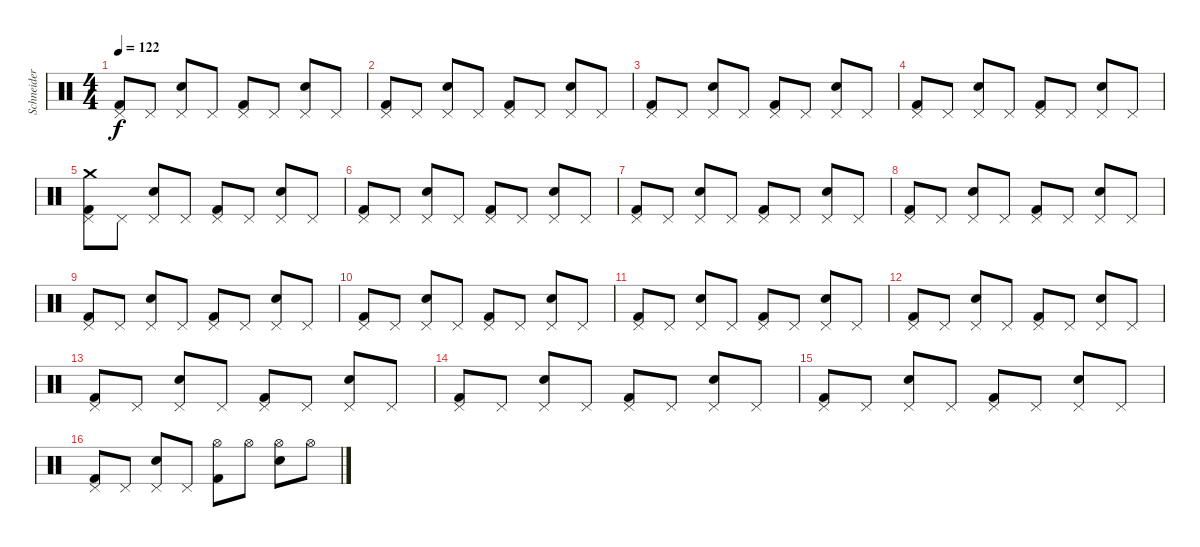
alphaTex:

\track ("Schneider" "Schneider") {instrument percussion}
\staff {score}
\articulation defaults
\ts (4 4)
\tempo 122
\clef neutral
\ks c
("Pedal Hi-Hat (hit)" "Kick (hit) 2").8{dy f} "Pedal Hi-Hat (hit)".8 ("Pedal Hi-Hat (hit)" "Snare (hit) 2").8 "Pedal Hi-Hat (hit)".8 ("Pedal Hi-Hat (hit)" "Kick (hit) 2").8 "Pedal Hi-Hat (hit)".8 ("Pedal Hi-Hat (hit)" "Snare (hit) 2").8 "Pedal Hi-Hat (hit)".8 |
("Pedal Hi-Hat (hit)" "Kick (hit) 2").8 "Pedal Hi-Hat (hit)".8 ("Pedal Hi-Hat (hit)" "Snare (hit) 2").8 "Pedal Hi-Hat (hit)".8 ("Pedal Hi-Hat (hit)" "Kick (hit) 2").8 "Pedal Hi-Hat (hit)".8 ("Pedal Hi-Hat (hit)" "Snare (hit) 2").8 "Pedal Hi-Hat (hit)".8 |
("Pedal Hi-Hat (hit)" "Kick (hit) 2").8 "Pedal Hi-Hat (hit)".8 ("Pedal Hi-Hat (hit)" "Snare (hit) 2").8 "Pedal Hi-Hat (hit)".8 ("Pedal Hi-Hat (hit)" "Kick (hit) 2").8 "Pedal Hi-Hat (hit)".8 ("Pedal Hi-Hat (hit)" "Snare (hit) 2").8 "Pedal Hi-Hat (hit)".8 |
("Pedal Hi-Hat (hit)" "Kick (hit) 2").8 "Pedal Hi-Hat (hit)".8 ("Pedal Hi-Hat (hit)" "Snare (hit) 2").8 "Pedal Hi-Hat (hit)".8 ("Pedal Hi-Hat (hit)" "Kick (hit) 2").8 "Pedal Hi-Hat (hit)".8 ("Pedal Hi-Hat (hit)" "Snare (hit) 2").8 "Pedal Hi-Hat (hit)".8 |
("Pedal Hi-Hat (hit)" "Crash medium (hit)" "Kick (hit) 2").8 "Pedal Hi-Hat (hit)".8 ("Pedal Hi-Hat (hit)" "Snare (hit) 2").8 "Pedal Hi-Hat (hit)".8 ("Pedal Hi-Hat (hit)" "Kick (hit) 2").8 "Pedal Hi-Hat (hit)".8 ("Pedal Hi-Hat (hit)" "Snare (hit) 2").8 "Pedal Hi-Hat (hit)".8 |
("Pedal Hi-Hat (hit)" "Kick (hit) 2").8 "Pedal Hi-Hat (hit)".8 ("Pedal Hi-Hat (hit)" "Snare (hit) 2").8 "Pedal Hi-Hat (hit)".8 ("Pedal Hi-Hat (hit)" "Kick (hit) 2").8 "Pedal Hi-Hat (hit)".8 ("Pedal Hi-Hat (hit)" "Snare (hit) 2").8 "Pedal Hi-Hat (hit)".8 |
("Pedal Hi-Hat (hit)" "Kick (hit) 2").8 "Pedal Hi-Hat (hit)".8 ("Pedal Hi-Hat (hit)" "Snare (hit) 2").8 "Pedal Hi-Hat (hit)".8 ("Pedal Hi-Hat (hit)" "Kick (hit) 2").8 "Pedal Hi-Hat (hit)".8 ("Pedal Hi-Hat (hit)" "Snare (hit) 2").8 "Pedal Hi-Hat (hit)".8 |
("Pedal Hi-Hat (hit)" "Kick (hit) 2").8 "Pedal Hi-Hat (hit)".8 ("Pedal Hi-Hat (hit)" "Snare (hit) 2").8 "Pedal Hi-Hat (hit)".8 ("Pedal Hi-Hat (hit)" "Kick (hit) 2").8 "Pedal Hi-Hat (hit)".8 ("Pedal Hi-Hat (hit)" "Snare (hit) 2").8 "Pedal Hi-Hat (hit)".8 |
("Pedal Hi-Hat (hit)" "Kick (hit) 2").8 "Pedal Hi-Hat (hit)".8 ("Pedal Hi-Hat (hit)" "Snare (hit) 2").8 "Pedal Hi-Hat (hit)".8 ("Pedal Hi-Hat (hit)" "Kick (hit) 2").8 "Pedal Hi-Hat (hit)".8 ("Pedal Hi-Hat (hit)" "Snare (hit) 2").8 "Pedal Hi-Hat (hit)".8 |
("Pedal Hi-Hat (hit)" "Kick (hit) 2").8 "Pedal Hi-Hat (hit)".8 ("Pedal Hi-Hat (hit)" "Snare (hit) 2").8 "Pedal Hi-Hat (hit)".8 ("Pedal Hi-Hat (hit)" "Kick (hit) 2").8 "Pedal Hi-Hat (hit)".8 ("Pedal Hi-Hat (hit)" "Snare (hit) 2").8 "Pedal Hi-Hat (hit)".8 |
("Pedal Hi-Hat (hit)" "Kick (hit) 2").8 "Pedal Hi-Hat (hit)".8 ("Pedal Hi-Hat (hit)" "Snare (hit) 2").8 "Pedal Hi-Hat (hit)".8 ("Pedal Hi-Hat (hit)" "Kick (hit) 2").8 "Pedal Hi-Hat (hit)".8 ("Pedal Hi-Hat (hit)" "Snare (hit) 2").8 "Pedal Hi-Hat (hit)".8 |
("Pedal Hi-Hat (hit)" "Kick (hit) 2").8 "Pedal Hi-Hat (hit)".8 ("Pedal Hi-Hat (hit)" "Snare (hit) 2").8 "Pedal Hi-Hat (hit)".8 ("Pedal Hi-Hat (hit)" "Kick (hit) 2").8 "Pedal Hi-Hat (hit)".8 ("Pedal Hi-Hat (hit)" "Snare (hit) 2").8 "Pedal Hi-Hat (hit)".8 |
("Pedal Hi-Hat (hit)" "Kick (hit) 2").8 "Pedal Hi-Hat (hit)".8 ("Pedal Hi-Hat (hit)" "Snare (hit) 2").8 "Pedal Hi-Hat (hit)".8 ("Pedal Hi-Hat (hit)" "Kick (hit) 2").8 "Pedal Hi-Hat (hit)".8 ("Pedal Hi-Hat (hit)" "Snare (hit) 2").8 "Pedal Hi-Hat (hit)".8 |
("Pedal Hi-Hat (hit)" "Kick (hit) 2").8 "Pedal Hi-Hat (hit)".8 ("Pedal Hi-Hat (hit)" "Snare (hit) 2").8 "Pedal Hi-Hat (hit)".8 ("Pedal Hi-Hat (hit)" "Kick (hit) 2").8 "Pedal Hi-Hat (hit)".8 ("Pedal Hi-Hat (hit)" "Snare (hit) 2").8 "Pedal Hi-Hat (hit)".8 |
("Pedal Hi-Hat (hit)" "Kick (hit) 2").8 "Pedal Hi-Hat (hit)".8 ("Pedal Hi-Hat (hit)" "Snare (hit) 2").8 "Pedal Hi-Hat (hit)".8 ("Pedal Hi-Hat (hit)" "Kick (hit) 2").8 "Pedal Hi-Hat (hit)".8 ("Pedal Hi-Hat (hit)" "Snare (hit) 2").8 "Pedal Hi-Hat (hit)".8 |
("Pedal Hi-Hat (hit)" "Kick (hit) 2").8 "Pedal Hi-Hat (hit)".8 ("Pedal Hi-Hat (hit)" "Snare (hit) 2").8 "Pedal Hi-Hat (hit)".8 ("Hi-Hat (open)" "Kick (hit) 2").8 "Hi-Hat (open)".8 ("Hi-Hat (open)" "Snare (hit) 2").8 "Hi-Hat (open)".8
